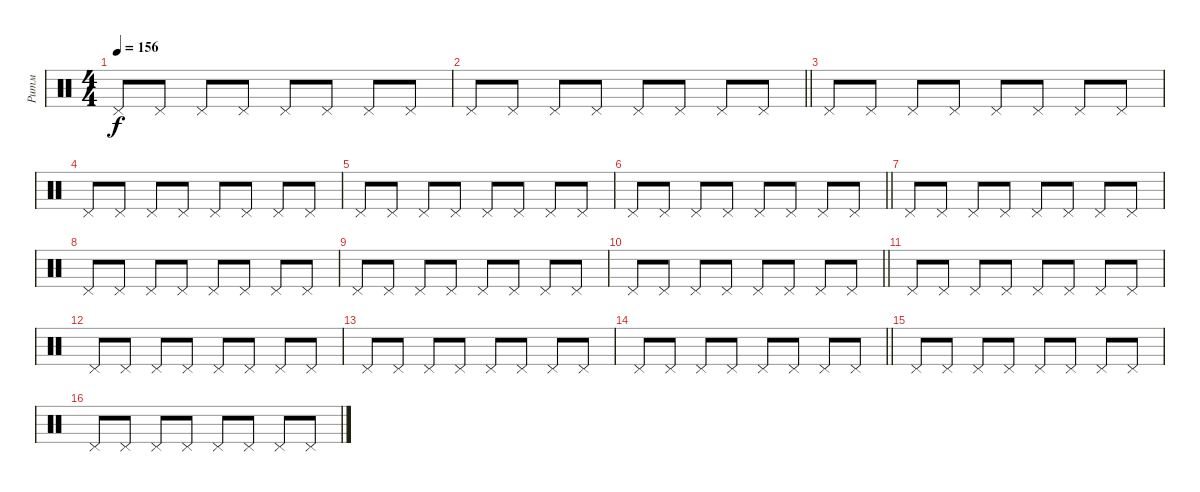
\track ("Ритм" "Ритм") {instrument percussion}
\staff {score}
\articulation defaults
\ts (4 4)
\tempo 156
\clef neutral
\ks c "Pedal Hi-Hat (hit)".8{dy f} "Pedal Hi-Hat (hit)".8 "Pedal Hi-Hat (hit)".8 "Pedal Hi-Hat (hit)".8 "Pedal Hi-Hat (hit)".8 "Pedal Hi-Hat (hit)".8 "Pedal Hi-Hat (hit)".8 "Pedal Hi-Hat (hit)".8
|
\barLineRight lightlight "Pedal Hi-Hat (hit)".8 "Pedal Hi-Hat (hit)".8 "Pedal Hi-Hat (hit)".8 "Pedal Hi-Hat (hit)".8 "Pedal Hi-Hat (hit)".8 "Pedal Hi-Hat (hit)".8 "Pedal Hi-Hat (hit)".8 "Pedal Hi-Hat (hit)".8
|
"Pedal Hi-Hat (hit)".8 "Pedal Hi-Hat (hit)".8 "Pedal Hi-Hat (hit)".8 "Pedal Hi-Hat (hit)".8 "Pedal Hi-Hat (hit)".8 "Pedal Hi-Hat (hit)".8 "Pedal Hi-Hat (hit)".8 "Pedal Hi-Hat (hit)".8 |
"Pedal Hi-Hat (hit)".8 "Pedal Hi-Hat (hit)".8 "Pedal Hi-Hat (hit)".8 "Pedal Hi-Hat (hit)".8 "Pedal Hi-Hat (hit)".8 "Pedal Hi-Hat (hit)".8 "Pedal Hi-Hat (hit)".8 "Pedal Hi-Hat (hit)".8 |
"Pedal Hi-Hat (hit)".8 "Pedal Hi-Hat (hit)".8 "Pedal Hi-Hat (hit)".8 "Pedal Hi-Hat (hit)".8 "Pedal Hi-Hat (hit)".8 "Pedal Hi-Hat (hit)".8 "Pedal Hi-Hat (hit)".8 "Pedal Hi-Hat (hit)".8 |
\barLineRight lightlight "Pedal Hi-Hat (hit)".8 "Pedal Hi-Hat (hit)".8 "Pedal Hi-Hat (hit)".8 "Pedal Hi-Hat (hit)".8 "Pedal Hi-Hat (hit)".8 "Pedal Hi-Hat (hit)".8 "Pedal Hi-Hat (hit)".8 "Pedal Hi-Hat (hit)".8
|
"Pedal Hi-Hat (hit)".8 "Pedal Hi-Hat (hit)".8 "Pedal Hi-Hat (hit)".8 "Pedal Hi-Hat (hit)".8 "Pedal Hi-Hat (hit)".8 "Pedal Hi-Hat (hit)".8 "Pedal Hi-Hat (hit)".8 "Pedal Hi-Hat (hit)".8 |
"Pedal Hi-Hat (hit)".8 "Pedal Hi-Hat (hit)".8 "Pedal Hi-Hat (hit)".8 "Pedal Hi-Hat (hit)".8 "Pedal Hi-Hat (hit)".8 "Pedal Hi-Hat (hit)".8 "Pedal Hi-Hat (hit)".8 "Pedal Hi-Hat (hit)".8 |
"Pedal Hi-Hat (hit)".8 "Pedal Hi-Hat (hit)".8 "Pedal Hi-Hat (hit)".8 "Pedal Hi-Hat (hit)".8 "Pedal Hi-Hat (hit)".8 "Pedal Hi-Hat (hit)".8 "Pedal Hi-Hat (hit)".8 "Pedal Hi-Hat (hit)".8 |
\barLineRight lightlight "Pedal Hi-Hat (hit)".8 "Pedal Hi-Hat (hit)".8 "Pedal Hi-Hat (hit)".8 "Pedal Hi-Hat (hit)".8 "Pedal Hi-Hat (hit)".8 "Pedal Hi-Hat (hit)".8 "Pedal Hi-Hat (hit)".8 "Pedal Hi-Hat (hit)".8
|
"Pedal Hi-Hat (hit)".8 "Pedal Hi-Hat (hit)".8 "Pedal Hi-Hat (hit)".8 "Pedal Hi-Hat (hit)".8 "Pedal Hi-Hat (hit)".8 "Pedal Hi-Hat (hit)".8 "Pedal Hi-Hat (hit)".8 "Pedal Hi-Hat (hit)".8 |
"Pedal Hi-Hat (hit)".8 "Pedal Hi-Hat (hit)".8 "Pedal Hi-Hat (hit)".8 "Pedal Hi-Hat (hit)".8 "Pedal Hi-Hat (hit)".8 "Pedal Hi-Hat (hit)".8 "Pedal Hi-Hat (hit)".8 "Pedal Hi-Hat (hit)".8 |
"Pedal Hi-Hat (hit)".8 "Pedal Hi-Hat (hit)".8 "Pedal Hi-Hat (hit)".8 "Pedal Hi-Hat (hit)".8 "Pedal Hi-Hat (hit)".8 "Pedal Hi-Hat (hit)".8 "Pedal Hi-Hat (hit)".8 "Pedal Hi-Hat (hit)".8 |
\barLineRight lightlight "Pedal Hi-Hat (hit)".8 "Pedal Hi-Hat (hit)".8 "Pedal Hi-Hat (hit)".8 "Pedal Hi-Hat (hit)".8 "Pedal Hi-Hat (hit)".8 "Pedal Hi-Hat (hit)".8 "Pedal Hi-Hat (hit)".8 "Pedal Hi-Hat (hit)".8
|
"Pedal Hi-Hat (hit)".8 "Pedal Hi-Hat (hit)".8 "Pedal Hi-Hat (hit)".8 "Pedal Hi-Hat (hit)".8 "Pedal Hi-Hat (hit)".8 "Pedal Hi-Hat (hit)".8 "Pedal Hi-Hat (hit)".8 "Pedal Hi-Hat (hit)".8 |
"Pedal Hi-Hat (hit)".8 "Pedal Hi-Hat (hit)".8 "Pedal Hi-Hat (hit)".8 "Pedal Hi-Hat (hit)".8 "Pedal Hi-Hat (hit)".8 "Pedal Hi-Hat (hit)".8 "Pedal Hi-Hat (hit)".8 "Pedal Hi-Hat (hit)".8
